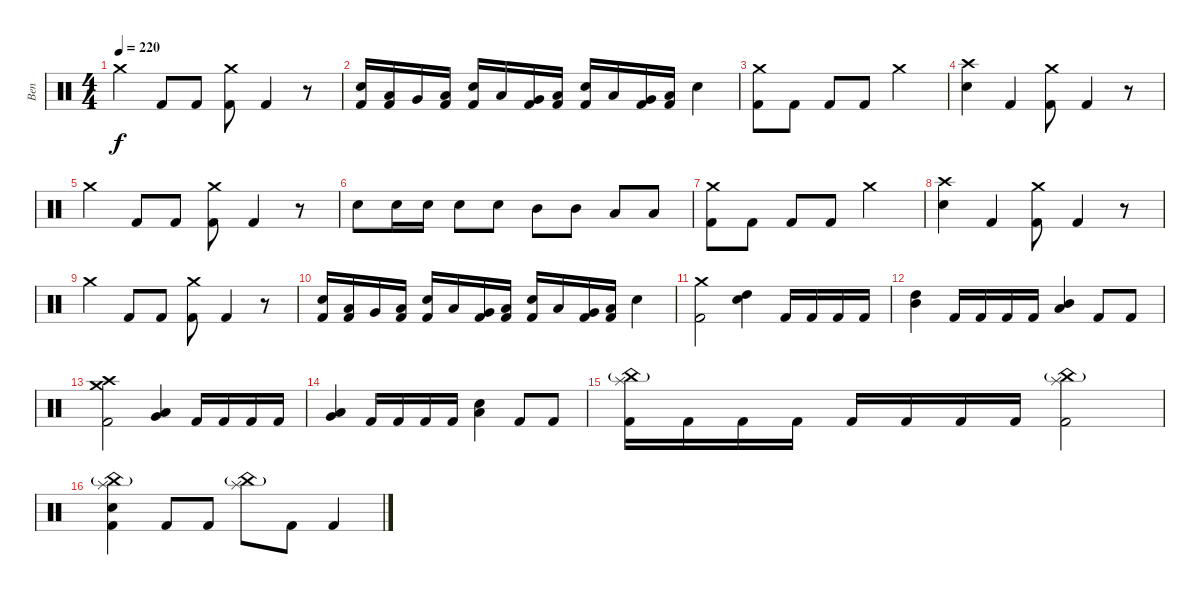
\track ("Ben" "Ben") {instrument percussion}
\staff {score}
\articulation defaults
\ts (4 4)
\tempo 220
\clef neutral
\ks c "Crash medium (hit)".4{dy f} "Kick (hit) 2".8 "Kick (hit) 2".8
("Crash medium (hit)" "Kick (hit) 2").8 "Kick (hit) 2".4 r.8 |
("Snare (hit) 2" "Kick (hit) 2").16 ("Low Tom (hit)" "Kick (hit) 2").16 "Very Low Tom (hit)".16 ("Low Floor Tom (hit)" "Kick (hit) 2").16 ("Snare (hit) 2" "Kick (hit) 2").16 "Low Tom (hit)".16 ("Very Low Tom (hit)" "Kick (hit) 2").16 ("Low Floor Tom (hit)" "Kick (hit) 2").16 ("Snare (hit) 2" "Kick (hit) 2").16 "Low Tom (hit)".16 ("Very Low Tom (hit)" "Kick (hit) 2").16 ("Low Floor Tom (hit)" "Kick (hit) 2").16 "Snare (hit) 2".4 |
("Crash medium (hit)" "Kick (hit) 2").8 "Kick (hit) 2".8 "Kick (hit) 2".8 "Kick (hit) 2".8 "Crash medium (hit)".2 |
("Crash high (hit)" "Snare (hit) 2").4 "Kick (hit) 2".4 ("Crash medium (hit)" "Kick (hit) 2").8 "Kick (hit) 2".4 r.8 |
"Crash medium (hit)".4 "Kick (hit) 2".8 "Kick (hit) 2".8 ("Crash medium (hit)" "Kick (hit) 2").8 "Kick (hit) 2".4 r.8 |
"Snare (hit) 2".8 "Snare (hit) 2".16 "Snare (hit) 2".16 "Snare (hit) 2".8 "Snare (hit) 2".8 "Mid Tom (hit)".8 "Mid Tom (hit)".8 "Low Tom (hit)".8 "Low Tom (hit)".8 |
("Crash medium (hit)" "Kick (hit) 2").8 "Kick (hit) 2".8 "Kick (hit) 2".8 "Kick (hit) 2".8 "Crash medium (hit)".2 |
("Crash high (hit)" "Snare (hit) 2").4 "Kick (hit) 2".4 ("Crash medium (hit)" "Kick (hit) 2").8 "Kick (hit) 2".4 r.8 |
"Crash medium (hit)".4 "Kick (hit) 2".8 "Kick (hit) 2".8 ("Crash medium (hit)" "Kick (hit) 2").8 "Kick (hit) 2".4 r.8 |
("Snare (hit) 2" "Kick (hit) 2").16 ("Low Tom (hit)" "Kick (hit) 2").16 "Very Low Tom (hit)".16 ("Low Floor Tom (hit)" "Kick (hit) 2").16 ("Snare (hit) 2" "Kick (hit) 2").16 "Low Tom (hit)".16 ("Very Low Tom (hit)" "Kick (hit) 2").16 ("Low Floor Tom (hit)" "Kick (hit) 2").16 ("Snare (hit) 2" "Kick (hit) 2").16 "Low Tom (hit)".16 ("Very Low Tom (hit)" "Kick (hit) 2").16 ("Low Floor Tom (hit)" "Kick (hit) 2").16 "Snare (hit) 2".4 |
("Crash medium (hit)" "Kick (hit) 2").2 ("Snare (hit) 2" "High Tom (hit)").4 "Kick (hit) 2".16 "Kick (hit) 2".16 "Kick (hit) 2".16 "Kick (hit) 2".16 |
("High Tom (hit)" "Mid Tom (hit)").4 "Kick (hit) 2".16 "Kick (hit) 2".16 "Kick (hit) 2".16 "Kick (hit) 2".16 ("Mid Tom (hit)" "Low Tom (hit)").4 "Kick (hit) 2".8 "Kick (hit) 2".8 |
("Crash high (hit)" "Crash medium (hit)" "Kick (hit) 2").2 ("Low Tom (hit)" "Very Low Tom (hit)").4 "Kick (hit) 2".16 "Kick (hit) 2".16 "Kick (hit) 2".16 "Kick (hit) 2".16 |
("Very Low Tom (hit)" "Low Floor Tom (hit)").4 "Kick (hit) 2".16 "Kick (hit) 2".16 "Kick (hit) 2".16 "Kick (hit) 2".16 ("Low Floor Tom (hit)" "Snare (hit) 2").4 "Kick (hit) 2".8 "Kick (hit) 2".8 |
("China (hit)"{g} "Splash (hit)" "Kick (hit) 2").16 "Kick (hit) 2".16 "Kick (hit) 2".16 "Kick (hit) 2".16 "Kick (hit) 2".16 "Kick (hit) 2".16 "Kick (hit) 2".16 "Kick (hit) 2".16 ("China (hit)"{g} "Splash (hit)" "Kick (hit) 2").2 |
("China (hit)"{g} "Splash (hit)" "Snare (hit) 2" "Kick (hit) 2").4 "Kick (hit) 2".8 "Kick (hit) 2".8 ("China (hit)"{g} "Splash (hit)").8 "Kick (hit) 2".8 "Kick (hit) 2".4
